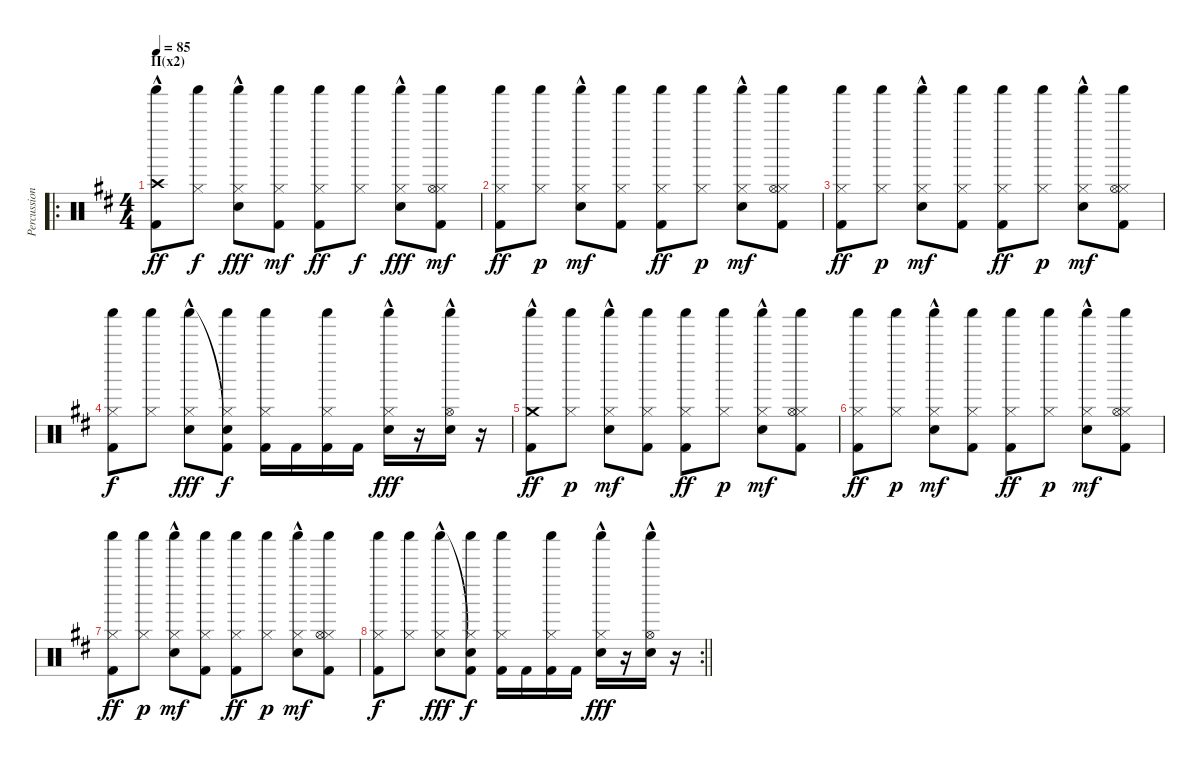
\track ("Percussion" "Percussion") {instrument percussion}
\staff {score}
\articulation defaults
\ro
\ts (4 4)
\section ("" "II(x2)")
\tempo 85
\clef neutral
\ks d
("Crash high (hit)"{hac} "Shaker (hit)" "Kick (hit) 2").8{dy ff} ("Hi-Hat (closed)" "Shaker (hit)").8{dy f} ("Hi-Hat (closed)" "Snare (hit) 2"{hac} "Shaker (hit)").8{dy fff} ("Hi-Hat (closed)" "Shaker (hit)" "Kick (hit) 2").8{dy mf} ("Hi-Hat (closed)" "Shaker (hit)" "Kick (hit) 2").8{dy ff} ("Hi-Hat (closed)" "Shaker (hit)").8{dy f} ("Hi-Hat (closed)" "Snare (hit) 2"{hac} "Shaker (hit)").8{dy fff} ("Hi-Hat (closed)" "Hi-Hat (open)" "Shaker (hit)" "Kick (hit) 2").8{dy mf} |
("Hi-Hat (closed)" "Shaker (hit)" "Kick (hit) 2").8{dy ff} ("Hi-Hat (closed)" "Shaker (hit)").8{dy p} ("Hi-Hat (closed)" "Snare (hit) 2"{hac} "Shaker (hit)").8{dy mf} ("Hi-Hat (closed)" "Shaker (hit)" "Kick (hit) 2").8 ("Hi-Hat (closed)" "Shaker (hit)" "Kick (hit) 2").8{dy ff} ("Hi-Hat (closed)" "Shaker (hit)").8{dy p} ("Hi-Hat (closed)" "Snare (hit) 2"{hac} "Shaker (hit)").8{dy mf} ("Hi-Hat (closed)" "Hi-Hat (open)" "Shaker (hit)" "Kick (hit) 2").8 |
("Hi-Hat (closed)" "Shaker (hit)" "Kick (hit) 2").8{dy ff} ("Hi-Hat (closed)" "Shaker (hit)").8{dy p} ("Hi-Hat (closed)" "Snare (hit) 2"{hac} "Shaker (hit)").8{dy mf} ("Hi-Hat (closed)" "Shaker (hit)" "Kick (hit) 2").8 ("Hi-Hat (closed)" "Shaker (hit)" "Kick (hit) 2").8{dy ff} ("Hi-Hat (closed)" "Shaker (hit)").8{dy p} ("Hi-Hat (closed)" "Snare (hit) 2"{hac} "Shaker (hit)").8{dy mf} ("Hi-Hat (closed)" "Shaker (hit)" "Hi-Hat (open)" "Kick (hit) 2").8 |
("Hi-Hat (closed)" "Shaker (hit)" "Kick (hit) 2").8{dy f} ("Hi-Hat (closed)" "Shaker (hit)").8 ("Hi-Hat (closed)" "Snare (hit) 2"{hac} "Shaker (hit)").8{dy fff} ("Hi-Hat (closed)" "Shaker (hit)" "Snare (hit) 2"{t} "Kick (hit) 2").8{dy f} ("Hi-Hat (closed)" "Shaker (hit)" "Kick (hit) 2").16 "Kick (hit) 2".16 ("Hi-Hat (closed)" "Shaker (hit)" "Kick (hit) 2").16 "Kick (hit) 2".16 ("Hi-Hat (closed)" "Snare (hit) 2"{hac} "Shaker (hit)").16{dy fff} r.16 ("Hi-Hat (open)" "Snare (hit) 2"{hac} "Shaker (hit)").16 r.16 |
("Crash medium (hit)"{hac} "Shaker (hit)" "Kick (hit) 2").8{dy ff} ("Hi-Hat (closed)" "Shaker (hit)").8{dy p} ("Hi-Hat (closed)" "Snare (hit) 2"{hac} "Shaker (hit)").8{dy mf} ("Hi-Hat (closed)" "Shaker (hit)" "Kick (hit) 2").8 ("Hi-Hat (closed)" "Shaker (hit)" "Kick (hit) 2").8{dy ff} ("Hi-Hat (closed)" "Shaker (hit)").8{dy p} ("Hi-Hat (closed)" "Snare (hit) 2"{hac} "Shaker (hit)").8{dy mf} ("Hi-Hat (closed)" "Hi-Hat (open)" "Shaker (hit)" "Kick (hit) 2").8 |
("Hi-Hat (closed)" "Shaker (hit)" "Kick (hit) 2").8{dy ff} ("Hi-Hat (closed)" "Shaker (hit)").8{dy p} ("Hi-Hat (closed)" "Snare (hit) 2"{hac} "Shaker (hit)").8{dy mf} ("Hi-Hat (closed)" "Shaker (hit)" "Kick (hit) 2").8 ("Hi-Hat (closed)" "Shaker (hit)" "Kick (hit) 2").8{dy ff} ("Hi-Hat (closed)" "Shaker (hit)").8{dy p} ("Hi-Hat (closed)" "Snare (hit) 2"{hac} "Shaker (hit)").8{dy mf} ("Hi-Hat (closed)" "Hi-Hat (open)" "Shaker (hit)" "Kick (hit) 2").8 |
("Hi-Hat (closed)" "Shaker (hit)" "Kick (hit) 2").8{dy ff} ("Hi-Hat (closed)" "Shaker (hit)").8{dy p} ("Hi-Hat (closed)" "Snare (hit) 2"{hac} "Shaker (hit)").8{dy mf} ("Hi-Hat (closed)" "Shaker (hit)" "Kick (hit) 2").8 ("Hi-Hat (closed)" "Shaker (hit)" "Kick (hit) 2").8{dy ff} ("Hi-Hat (closed)" "Shaker (hit)").8{dy p} ("Hi-Hat (closed)" "Snare (hit) 2"{hac} "Shaker (hit)").8{dy mf} ("Hi-Hat (closed)" "Shaker (hit)" "Hi-Hat (open)" "Kick (hit) 2").8 |
\rc 2
\barLineRight lightlight
("Hi-Hat (closed)" "Shaker (hit)" "Kick (hit) 2").8{dy f} ("Hi-Hat (closed)" "Shaker (hit)").8 ("Hi-Hat (closed)" "Snare (hit) 2"{hac} "Shaker (hit)").8{dy fff} ("Hi-Hat (closed)" "Shaker (hit)" "Snare (hit) 2"{t} "Kick (hit) 2").8{dy f} ("Hi-Hat (closed)" "Shaker (hit)" "Kick (hit) 2").16 "Kick (hit) 2".16 ("Hi-Hat (closed)" "Shaker (hit)" "Kick (hit) 2").16 "Kick (hit) 2".16 ("Hi-Hat (closed)" "Snare (hit) 2"{hac} "Shaker (hit)").16{dy fff} r.16 ("Hi-Hat (open)" "Snare (hit) 2"{hac} "Shaker (hit)").16 r.16
